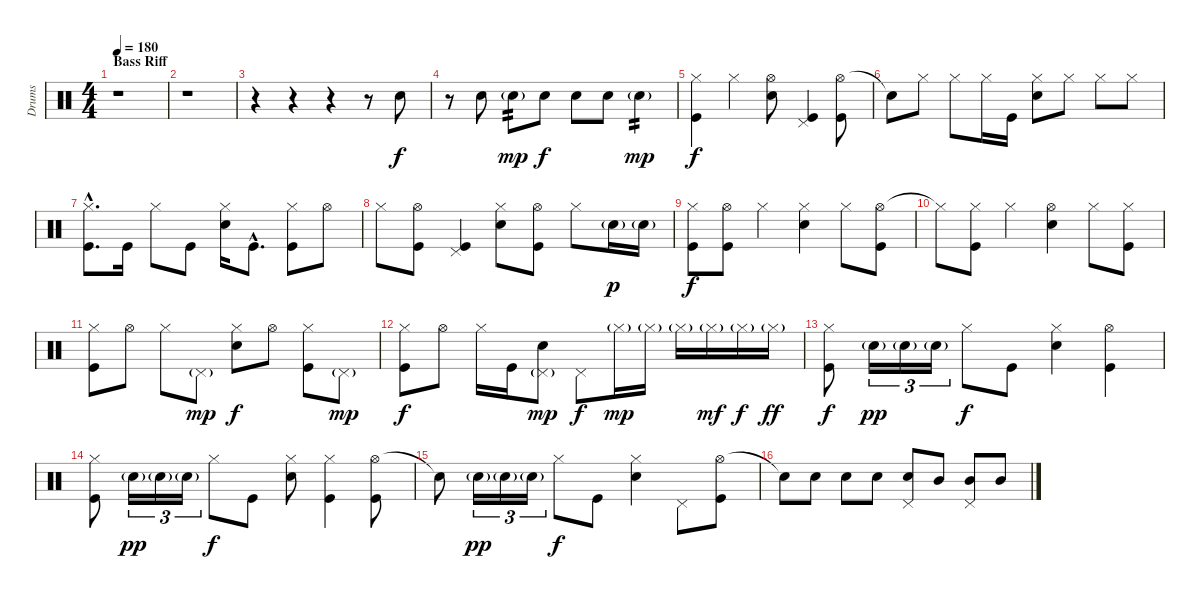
\track ("Drums" "Drums") {instrument percussion}
\staff {score}
\articulation defaults
\ts (4 4)
\section ("" "Bass Riff")
\tempo 180
\clef neutral
\ks c
r.1{dy f} |
r.1 |
r.4 r.4 r.4 r.8 "Electric Snare (hit)".8 |
r.8 "Electric Snare (hit)".8 "Electric Snare (hit)"{g}.8{tp 2 dy mp} "Electric Snare (hit)".8{dy f} "Electric Snare (hit)".8 "Electric Snare (hit)".8 "Electric Snare (hit)"{g}.4{tp 2 dy mp} |
("Hi-Hat (closed)" "Kick (hit)").4{dy f} "Hi-Hat (closed)".4 ("Hi-Hat (open)" "Electric Snare (hit)").8 ("Pedal Hi-Hat (hit)" "Kick (hit)").4 ("Hi-Hat (open)" "Kick (hit)").8 |
"Snare (hit)"{t}.8 "Hi-Hat (closed)".8 "Hi-Hat (closed)".8 "Hi-Hat (closed)".16 "Kick (hit)".16 ("Hi-Hat (closed)" "Electric Snare (hit)").8 "Hi-Hat (closed)".8 "Hi-Hat (closed)".8 "Hi-Hat (closed)".8 |
("Hi-Hat (closed)"{hac} "Kick (hit)"{hac}).8{d} "Kick (hit)".16 "Hi-Hat (closed)".8 "Kick (hit)".8 ("Hi-Hat (closed)" "Electric Snare (hit)").16 "Kick (hit)"{hac}.8{d} ("Hi-Hat (closed)" "Kick (hit)").8 "Hi-Hat (open)".8 |
"Hi-Hat (closed)".8 ("Hi-Hat (open)" "Kick (hit)").8 ("Pedal Hi-Hat (hit)" "Kick (hit)").4 ("Hi-Hat (closed)" "Electric Snare (hit)").8 ("Hi-Hat (open)" "Kick (hit)").8 "Hi-Hat (closed)".8 "Electric Snare (hit)"{g}.16{dy p} "Electric Snare (hit)"{g}.16 |
("Hi-Hat (closed)" "Kick (hit)").8{dy f} ("Hi-Hat (open)" "Kick (hit)").8 "Hi-Hat (closed)".4 ("Hi-Hat (closed)" "Electric Snare (hit)").4 "Hi-Hat (closed)".8 ("Hi-Hat (open)" "Kick (hit)").8 |
"Hi-Hat (closed)"{t}.8 ("Hi-Hat (closed)" "Kick (hit)").8 "Hi-Hat (closed)".4 ("Hi-Hat (open)" "Electric Snare (hit)").4 "Hi-Hat (closed)".8 ("Hi-Hat (closed)" "Kick (hit)").8 |
("Hi-Hat (closed)" "Kick (hit)").8 "Hi-Hat (open)".8 "Hi-Hat (closed)".8 "Pedal Hi-Hat (hit)"{g}.8{dy mp} ("Hi-Hat (closed)" "Electric Snare (hit)").8{dy f} "Hi-Hat (open)".8 ("Hi-Hat (closed)" "Kick (hit)").8 "Pedal Hi-Hat (hit)"{g}.8{dy mp} |
("Hi-Hat (closed)" "Kick (hit)").8{dy f} "Hi-Hat (open)".8 "Hi-Hat (closed)".16 "Kick (hit)".16 ("Pedal Hi-Hat (hit)"{g} "Electric Snare (hit)").8{dy mp} "Pedal Hi-Hat (hit)".8{dy f} "Hi-Hat (closed)"{g}.16{dy mp} "Hi-Hat (closed)"{g}.16 "Hi-Hat (closed)"{g}.16 "Hi-Hat (closed)"{g}.16{dy mf} "Hi-Hat (closed)"{g}.16{dy f} "Hi-Hat (closed)"{g}.16{dy ff} |
("Hi-Hat (closed)" "Kick (hit)").8{dy f} "Electric Snare (hit)"{g}.16{tu (3 2) dy pp} "Electric Snare (hit)"{g}.16{tu (3 2)} "Electric Snare (hit)"{g}.16{tu (3 2)} "Hi-Hat (closed)".8{dy f} "Kick (hit)".8 ("Hi-Hat (closed)" "Electric Snare (hit)").4 ("Hi-Hat (open)" "Kick (hit)").4 |
("Hi-Hat (closed)" "Kick (hit)").8 "Electric Snare (hit)"{g}.16{tu (3 2) dy pp} "Electric Snare (hit)"{g}.16{tu (3 2)} "Electric Snare (hit)"{g}.16{tu (3 2)} "Hi-Hat (closed)".8{dy f} "Kick (hit)".8 ("Hi-Hat (closed)" "Electric Snare (hit)").8 ("Hi-Hat (closed)" "Kick (hit)").4 ("Hi-Hat (open)" "Kick (hit)").8 |
"Snare (hit)"{t}.8 "Electric Snare (hit)"{g}.16{tu (3 2) dy pp} "Electric Snare (hit)"{g}.16{tu (3 2)} "Electric Snare (hit)"{g}.16{tu (3 2)} "Hi-Hat (closed)".8{dy f} "Kick (hit)".8 ("Hi-Hat (closed)" "Electric Snare (hit)").4 "Pedal Hi-Hat (hit)".8 ("Hi-Hat (open)" "Kick (hit)").8 |
"Snare (hit)"{t}.8 "Electric Snare (hit)".8 "Electric Snare (hit)".8 "Electric Snare (hit)".8 ("Pedal Hi-Hat (hit)" "Electric Snare (hit)").8 "Mid Tom (hit)".8 ("Pedal Hi-Hat (hit)" "Mid Tom (hit)").8 "Mid Tom (hit)".8
